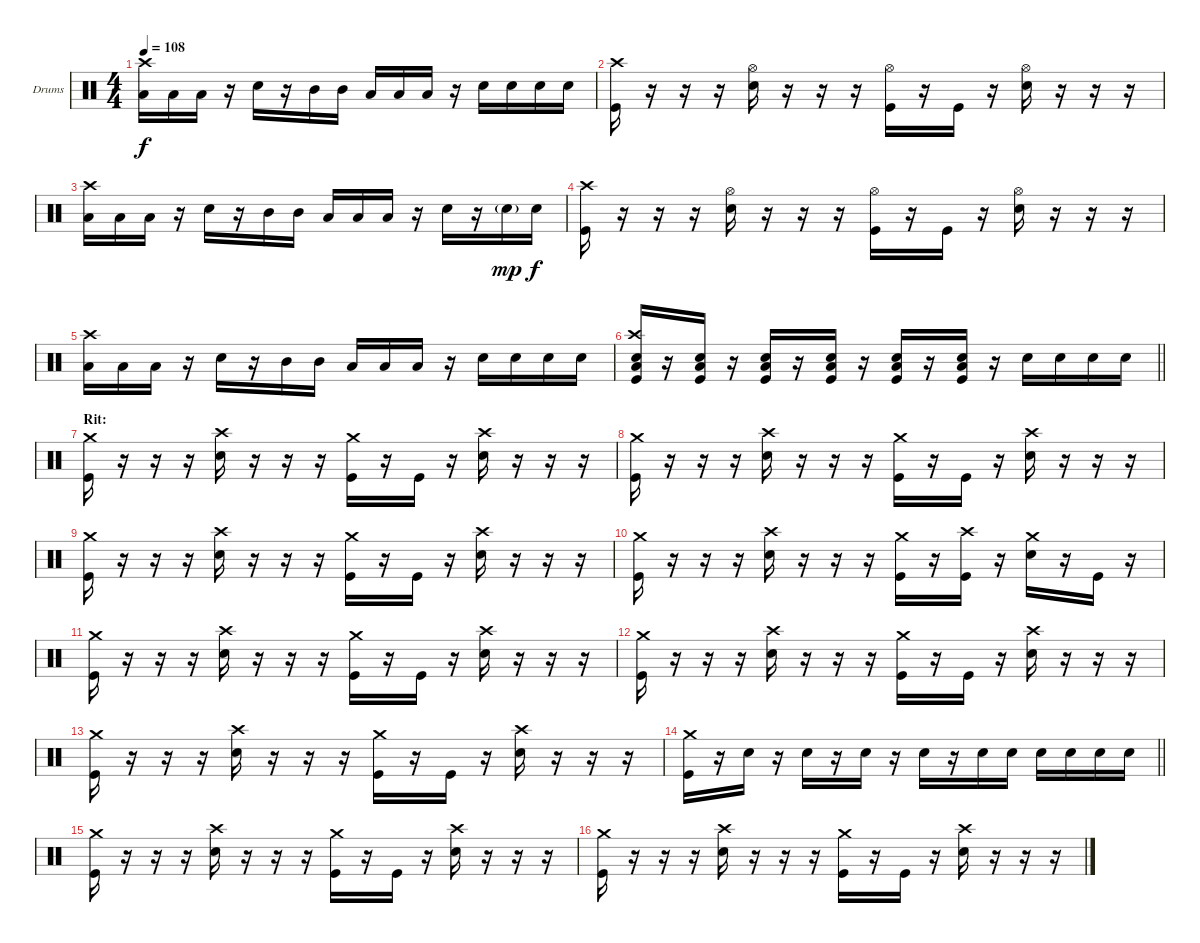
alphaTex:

\bracketExtendMode groupsimilarinstruments
\firstSystemTrackNameOrientation horizontal
\otherSystemsTrackNameOrientation horizontal
\track ("Drumkit" "Drums") {instrument percussion}
\staff {score}
\articulation defaults
\ts (4 4)
\tempo 108
\clef neutral
\ks c
("Low Tom (hit)" "Crash high (hit)").16{dy f} "Low Tom (hit)".16 "Low Tom (hit)".16 r.16 "Snare (hit) 2".16 r.16 "Mid Tom (hit)".16 "Mid Tom (hit)".16 "Low Tom (hit)".16 "Low Tom (hit)".16 "Low Tom (hit)".16 r.16 "Snare (hit) 2".16 "Snare (hit) 2".16 "Snare (hit) 2".16 "Snare (hit) 2".16 |
("Kick (hit)" "Crash high (hit)").16 r.16 r.16 r.16 ("Snare (hit) 2" "Hi-Hat (open)").16 r.16 r.16 r.16 ("Kick (hit)" "Hi-Hat (open)").16 r.16 "Kick (hit)".16 r.16 ("Snare (hit) 2" "Hi-Hat (open)").16 r.16 r.16 r.16 |
("Low Tom (hit)" "Crash high (hit)").16 "Low Tom (hit)".16 "Low Tom (hit)".16 r.16 "Snare (hit) 2".16 r.16 "Mid Tom (hit)".16 "Mid Tom (hit)".16 "Low Tom (hit)".16 "Low Tom (hit)".16 "Low Tom (hit)".16 r.16 "Snare (hit) 2".16 r.16 "Snare (hit) 2"{g}.16{dy mp} "Snare (hit) 2".16{dy f} |
("Kick (hit)" "Crash high (hit)").16 r.16 r.16 r.16 ("Snare (hit) 2" "Hi-Hat (open)").16 r.16 r.16 r.16 ("Kick (hit)" "Hi-Hat (open)").16 r.16 "Kick (hit)".16 r.16 ("Snare (hit) 2" "Hi-Hat (open)").16 r.16 r.16 r.16 |
("Low Tom (hit)" "Crash high (hit)").16 "Low Tom (hit)".16 "Low Tom (hit)".16 r.16 "Snare (hit) 2".16 r.16 "Mid Tom (hit)".16 "Mid Tom (hit)".16 "Low Tom (hit)".16 "Low Tom (hit)".16 "Low Tom (hit)".16 r.16 "Snare (hit) 2".16 "Snare (hit) 2".16 "Snare (hit) 2".16 "Snare (hit) 2".16 |
\barLineRight lightlight
("Kick (hit)" "Snare (hit) 2" "Low Tom (hit)" "Crash high (hit)").16 r.16 ("Kick (hit)" "Snare (hit) 2" "Low Tom (hit)").16 r.16 ("Kick (hit)" "Snare (hit) 2" "Low Tom (hit)").16 r.16 ("Kick (hit)" "Snare (hit) 2" "Low Tom (hit)").16 r.16 ("Kick (hit)" "Snare (hit) 2" "Low Tom (hit)").16 r.16 ("Kick (hit)" "Snare (hit) 2" "Low Tom (hit)").16 r.16 "Snare (hit) 2".16 "Snare (hit) 2".16 "Snare (hit) 2".16 "Snare (hit) 2".16 |
\section ("" "Rit:")
("Kick (hit)" "Crash medium (hit)").16 r.16 r.16 r.16 ("Snare (hit) 2" "Crash high (hit)").16 r.16 r.16 r.16 ("Kick (hit)" "Crash medium (hit)").16 r.16 "Kick (hit)".16 r.16 ("Snare (hit) 2" "Crash high (hit)").16 r.16 r.16 r.16 |
("Kick (hit)" "Crash medium (hit)").16 r.16 r.16 r.16 ("Snare (hit) 2" "Crash high (hit)").16 r.16 r.16 r.16 ("Kick (hit)" "Crash medium (hit)").16 r.16 "Kick (hit)".16 r.16 ("Snare (hit) 2" "Crash high (hit)").16 r.16 r.16 r.16 |
("Kick (hit)" "Crash medium (hit)").16 r.16 r.16 r.16 ("Snare (hit) 2" "Crash high (hit)").16 r.16 r.16 r.16 ("Kick (hit)" "Crash medium (hit)").16 r.16 "Kick (hit)".16 r.16 ("Snare (hit) 2" "Crash high (hit)").16 r.16 r.16 r.16 |
("Kick (hit)" "Crash medium (hit)").16 r.16 r.16 r.16 ("Snare (hit) 2" "Crash high (hit)").16 r.16 r.16 r.16 ("Kick (hit)" "Crash medium (hit)").16 r.16 ("Kick (hit)" "Crash high (hit)").16 r.16 ("Snare (hit) 2" "Crash medium (hit)").16 r.16 "Kick (hit)".16 r.16 |
("Kick (hit)" "Crash medium (hit)").16 r.16 r.16 r.16 ("Snare (hit) 2" "Crash high (hit)").16 r.16 r.16 r.16 ("Kick (hit)" "Crash medium (hit)").16 r.16 "Kick (hit)".16 r.16 ("Snare (hit) 2" "Crash high (hit)").16 r.16 r.16 r.16 |
("Kick (hit)" "Crash medium (hit)").16 r.16 r.16 r.16 ("Snare (hit) 2" "Crash high (hit)").16 r.16 r.16 r.16 ("Kick (hit)" "Crash medium (hit)").16 r.16 "Kick (hit)".16 r.16 ("Snare (hit) 2" "Crash high (hit)").16 r.16 r.16 r.16 |
("Kick (hit)" "Crash medium (hit)").16 r.16 r.16 r.16 ("Snare (hit) 2" "Crash high (hit)").16 r.16 r.16 r.16 ("Kick (hit)" "Crash medium (hit)").16 r.16 "Kick (hit)".16 r.16 ("Snare (hit) 2" "Crash high (hit)").16 r.16 r.16 r.16 |
\barLineRight lightlight
("Kick (hit)" "Crash medium (hit)").16 r.16 "Snare (hit) 2".16 r.16 "Snare (hit) 2".16 r.16 "Snare (hit) 2".16 r.16 "Snare (hit) 2".16 r.16 "Snare (hit) 2".16 "Snare (hit) 2".16 "Snare (hit) 2".16 "Snare (hit) 2".16 "Snare (hit) 2".16 "Snare (hit) 2".16 |
("Kick (hit)" "Crash medium (hit)").16 r.16 r.16 r.16 ("Snare (hit) 2" "Crash high (hit)").16 r.16 r.16 r.16 ("Kick (hit)" "Crash medium (hit)").16 r.16 "Kick (hit)".16 r.16 ("Snare (hit) 2" "Crash high (hit)").16 r.16 r.16 r.16 |
("Kick (hit)" "Crash medium (hit)").16 r.16 r.16 r.16 ("Snare (hit) 2" "Crash high (hit)").16 r.16 r.16 r.16 ("Kick (hit)" "Crash medium (hit)").16 r.16 "Kick (hit)".16 r.16 ("Snare (hit) 2" "Crash high (hit)").16 r.16 r.16 r.16
